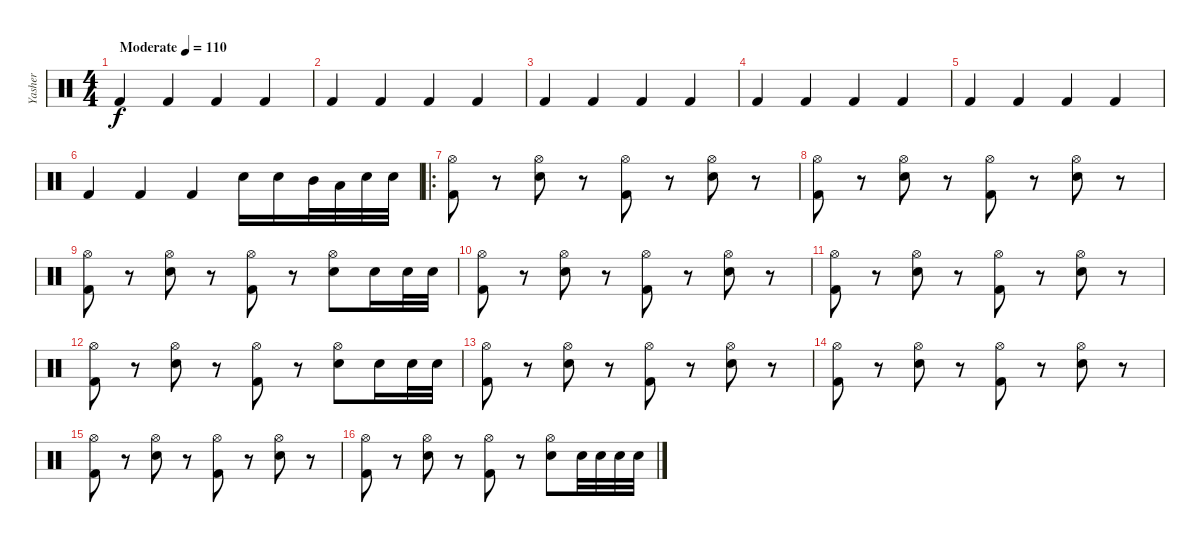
\track ("Yasher" "Yasher") {instrument percussion}
\staff {score}
\articulation defaults
\ts (4 4)
\tempo (110 "Moderate")
\clef neutral
\ks c "Kick (hit) 2".4{dy f} "Kick (hit) 2".4 "Kick (hit) 2".4 "Kick (hit) 2".4
|
"Kick (hit) 2".4 "Kick (hit) 2".4 "Kick (hit) 2".4 "Kick (hit) 2".4 |
"Kick (hit) 2".4 "Kick (hit) 2".4 "Kick (hit) 2".4 "Kick (hit) 2".4 |
"Kick (hit) 2".4 "Kick (hit) 2".4 "Kick (hit) 2".4 "Kick (hit) 2".4 |
"Kick (hit) 2".4 "Kick (hit) 2".4 "Kick (hit) 2".4 "Kick (hit) 2".4 |
"Kick (hit) 2".4 "Kick (hit) 2".4 "Kick (hit) 2".4 "Electric Snare (hit)".16 "Electric Snare (hit)".16 "Mid Tom (hit)".32 "Low Tom (hit)".32 "Electric Snare (hit)".32 "Electric Snare (hit)".32 |
\ro
("Hi-Hat (open)" "Kick (hit) 2").8 r.8 ("Hi-Hat (open)" "Electric Snare (hit)").8 r.8 ("Hi-Hat (open)" "Kick (hit) 2").8 r.8 ("Hi-Hat (open)" "Electric Snare (hit)").8 r.8 |
("Hi-Hat (open)" "Kick (hit) 2").8 r.8 ("Hi-Hat (open)" "Electric Snare (hit)").8 r.8 ("Hi-Hat (open)" "Kick (hit) 2").8 r.8 ("Hi-Hat (open)" "Electric Snare (hit)").8 r.8 |
("Hi-Hat (open)" "Kick (hit) 2").8 r.8 ("Hi-Hat (open)" "Electric Snare (hit)").8 r.8 ("Hi-Hat (open)" "Kick (hit) 2").8 r.8 ("Hi-Hat (open)" "Electric Snare (hit)").8 "Electric Snare (hit)".16 "Electric Snare (hit)".32 "Electric Snare (hit)".32 |
("Hi-Hat (open)" "Kick (hit) 2").8 r.8 ("Hi-Hat (open)" "Electric Snare (hit)").8 r.8 ("Hi-Hat (open)" "Kick (hit) 2").8 r.8 ("Hi-Hat (open)" "Electric Snare (hit)").8 r.8 |
("Hi-Hat (open)" "Kick (hit) 2").8 r.8 ("Hi-Hat (open)" "Electric Snare (hit)").8 r.8 ("Hi-Hat (open)" "Kick (hit) 2").8 r.8 ("Hi-Hat (open)" "Electric Snare (hit)").8 r.8 |
("Hi-Hat (open)" "Kick (hit) 2").8 r.8 ("Hi-Hat (open)" "Electric Snare (hit)").8 r.8 ("Hi-Hat (open)" "Kick (hit) 2").8 r.8 ("Hi-Hat (open)" "Electric Snare (hit)").8 "Electric Snare (hit)".16 "Electric Snare (hit)".32 "Electric Snare (hit)".32 |
("Hi-Hat (open)" "Kick (hit) 2").8 r.8 ("Hi-Hat (open)" "Electric Snare (hit)").8 r.8 ("Hi-Hat (open)" "Kick (hit) 2").8 r.8 ("Hi-Hat (open)" "Electric Snare (hit)").8 r.8 |
("Hi-Hat (open)" "Kick (hit) 2").8 r.8 ("Hi-Hat (open)" "Electric Snare (hit)").8 r.8 ("Hi-Hat (open)" "Kick (hit) 2").8 r.8 ("Hi-Hat (open)" "Electric Snare (hit)").8 r.8 |
("Hi-Hat (open)" "Kick (hit) 2").8 r.8 ("Hi-Hat (open)" "Electric Snare (hit)").8 r.8 ("Hi-Hat (open)" "Kick (hit) 2").8 r.8 ("Hi-Hat (open)" "Electric Snare (hit)").8 r.8 |
("Hi-Hat (open)" "Kick (hit) 2").8 r.8 ("Hi-Hat (open)" "Electric Snare (hit)").8 r.8 ("Hi-Hat (open)" "Kick (hit) 2").8 r.8 ("Hi-Hat (open)" "Electric Snare (hit)").8 "Electric Snare (hit)".32 "Electric Snare (hit)".32 "Electric Snare (hit)".32 "Electric Snare (hit)".32
